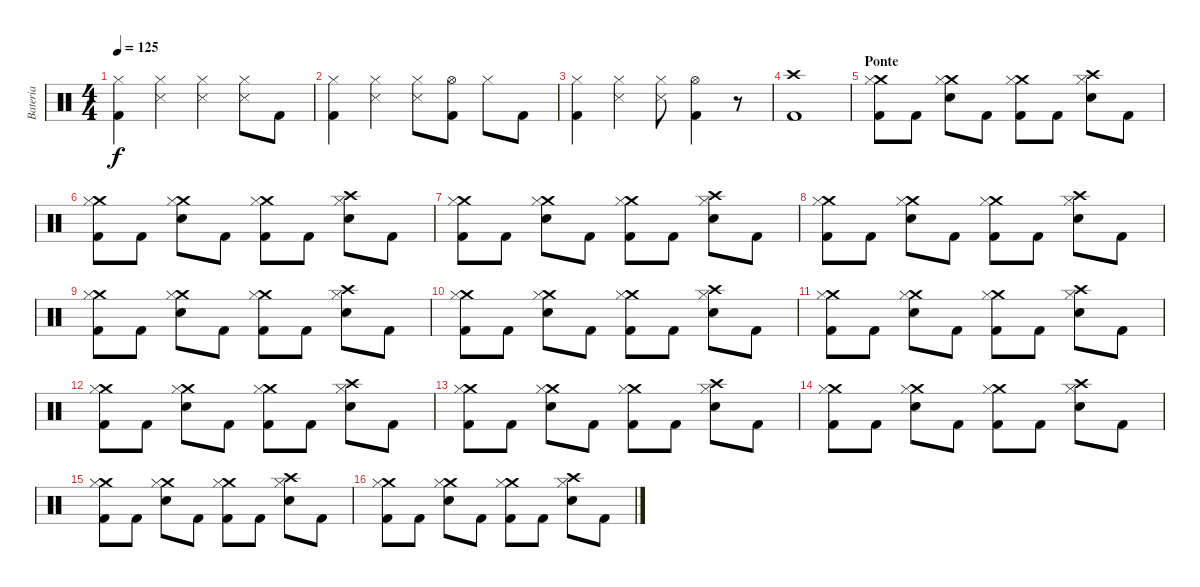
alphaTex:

\track ("Bateria" "Bateria") {instrument percussion}
\staff {score}
\articulation defaults
\ts (4 4)
\tempo 125
\clef neutral
\ks c
("Kick (hit) 2" "Hi-Hat (closed)").4{dy f} ("Snare (side stick) 3" "Hi-Hat (closed)").4 ("Snare (side stick) 3" "Hi-Hat (closed)").4 ("Snare (side stick) 3" "Hi-Hat (closed)").8 "Kick (hit) 2".8 |
("Kick (hit) 2" "Hi-Hat (closed)").4 ("Snare (side stick) 3" "Hi-Hat (closed)").4 ("Snare (side stick) 3" "Hi-Hat (closed)").8 ("Kick (hit) 2" "Hi-Hat (open)").8 "Hi-Hat (closed)".8 "Kick (hit) 2".8 |
("Kick (hit) 2" "Hi-Hat (closed)").4 ("Snare (side stick) 3" "Hi-Hat (closed)").4 ("Snare (side stick) 3" "Hi-Hat (closed)").8 ("Kick (hit) 2" "Hi-Hat (open)").4 r.8 |
("Crash high (hit)" "Kick (hit) 2").1 |
\section ("" "Ponte")
("Crash medium (hit)" "Kick (hit) 2" "Hi-Hat (closed)").8 "Kick (hit) 2".8 ("Crash medium (hit)" "Electric Snare (hit)" "Hi-Hat (closed)").8 "Kick (hit) 2".8 ("Crash medium (hit)" "Kick (hit) 2" "Hi-Hat (closed)").8 "Kick (hit) 2".8 ("Crash high (hit)" "Electric Snare (hit)" "Hi-Hat (closed)").8 "Kick (hit) 2".8 |
("Crash medium (hit)" "Kick (hit) 2" "Hi-Hat (closed)").8 "Kick (hit) 2".8 ("Crash medium (hit)" "Electric Snare (hit)" "Hi-Hat (closed)").8 "Kick (hit) 2".8 ("Crash medium (hit)" "Kick (hit) 2" "Hi-Hat (closed)").8 "Kick (hit) 2".8 ("Crash high (hit)" "Electric Snare (hit)" "Hi-Hat (closed)").8 "Kick (hit) 2".8 |
("Crash medium (hit)" "Kick (hit) 2" "Hi-Hat (closed)").8 "Kick (hit) 2".8 ("Crash medium (hit)" "Electric Snare (hit)" "Hi-Hat (closed)").8 "Kick (hit) 2".8 ("Crash medium (hit)" "Kick (hit) 2" "Hi-Hat (closed)").8 "Kick (hit) 2".8 ("Crash high (hit)" "Electric Snare (hit)" "Hi-Hat (closed)").8 "Kick (hit) 2".8 |
("Crash medium (hit)" "Kick (hit) 2" "Hi-Hat (closed)").8 "Kick (hit) 2".8 ("Crash medium (hit)" "Electric Snare (hit)" "Hi-Hat (closed)").8 "Kick (hit) 2".8 ("Crash medium (hit)" "Kick (hit) 2" "Hi-Hat (closed)").8 "Kick (hit) 2".8 ("Crash high (hit)" "Electric Snare (hit)" "Hi-Hat (closed)").8 "Kick (hit) 2".8 |
("Crash medium (hit)" "Kick (hit) 2" "Hi-Hat (closed)").8 "Kick (hit) 2".8 ("Crash medium (hit)" "Electric Snare (hit)" "Hi-Hat (closed)").8 "Kick (hit) 2".8 ("Crash medium (hit)" "Kick (hit) 2" "Hi-Hat (closed)").8 "Kick (hit) 2".8 ("Crash high (hit)" "Electric Snare (hit)" "Hi-Hat (closed)").8 "Kick (hit) 2".8 |
("Crash medium (hit)" "Kick (hit) 2" "Hi-Hat (closed)").8 "Kick (hit) 2".8 ("Crash medium (hit)" "Electric Snare (hit)" "Hi-Hat (closed)").8 "Kick (hit) 2".8 ("Crash medium (hit)" "Kick (hit) 2" "Hi-Hat (closed)").8 "Kick (hit) 2".8 ("Crash high (hit)" "Electric Snare (hit)" "Hi-Hat (closed)").8 "Kick (hit) 2".8 |
("Crash medium (hit)" "Kick (hit) 2" "Hi-Hat (closed)").8 "Kick (hit) 2".8 ("Crash medium (hit)" "Electric Snare (hit)" "Hi-Hat (closed)").8 "Kick (hit) 2".8 ("Crash medium (hit)" "Kick (hit) 2" "Hi-Hat (closed)").8 "Kick (hit) 2".8 ("Crash high (hit)" "Electric Snare (hit)" "Hi-Hat (closed)").8 "Kick (hit) 2".8 |
("Crash medium (hit)" "Kick (hit) 2" "Hi-Hat (closed)").8 "Kick (hit) 2".8 ("Crash medium (hit)" "Electric Snare (hit)" "Hi-Hat (closed)").8 "Kick (hit) 2".8 ("Crash medium (hit)" "Kick (hit) 2" "Hi-Hat (closed)").8 "Kick (hit) 2".8 ("Crash high (hit)" "Electric Snare (hit)" "Hi-Hat (closed)").8 "Kick (hit) 2".8 |
("Crash medium (hit)" "Kick (hit) 2" "Hi-Hat (closed)").8 "Kick (hit) 2".8 ("Crash medium (hit)" "Electric Snare (hit)" "Hi-Hat (closed)").8 "Kick (hit) 2".8 ("Crash medium (hit)" "Kick (hit) 2" "Hi-Hat (closed)").8 "Kick (hit) 2".8 ("Crash high (hit)" "Electric Snare (hit)" "Hi-Hat (closed)").8 "Kick (hit) 2".8 |
("Crash medium (hit)" "Kick (hit) 2" "Hi-Hat (closed)").8 "Kick (hit) 2".8 ("Crash medium (hit)" "Electric Snare (hit)" "Hi-Hat (closed)").8 "Kick (hit) 2".8 ("Crash medium (hit)" "Kick (hit) 2" "Hi-Hat (closed)").8 "Kick (hit) 2".8 ("Crash high (hit)" "Electric Snare (hit)" "Hi-Hat (closed)").8 "Kick (hit) 2".8 |
("Crash medium (hit)" "Kick (hit) 2" "Hi-Hat (closed)").8 "Kick (hit) 2".8 ("Crash medium (hit)" "Electric Snare (hit)" "Hi-Hat (closed)").8 "Kick (hit) 2".8 ("Crash medium (hit)" "Kick (hit) 2" "Hi-Hat (closed)").8 "Kick (hit) 2".8 ("Crash high (hit)" "Electric Snare (hit)" "Hi-Hat (closed)").8 "Kick (hit) 2".8 |
("Crash medium (hit)" "Kick (hit) 2" "Hi-Hat (closed)").8 "Kick (hit) 2".8 ("Crash medium (hit)" "Electric Snare (hit)" "Hi-Hat (closed)").8 "Kick (hit) 2".8 ("Crash medium (hit)" "Kick (hit) 2" "Hi-Hat (closed)").8 "Kick (hit) 2".8 ("Crash high (hit)" "Electric Snare (hit)" "Hi-Hat (closed)").8 "Kick (hit) 2".8
